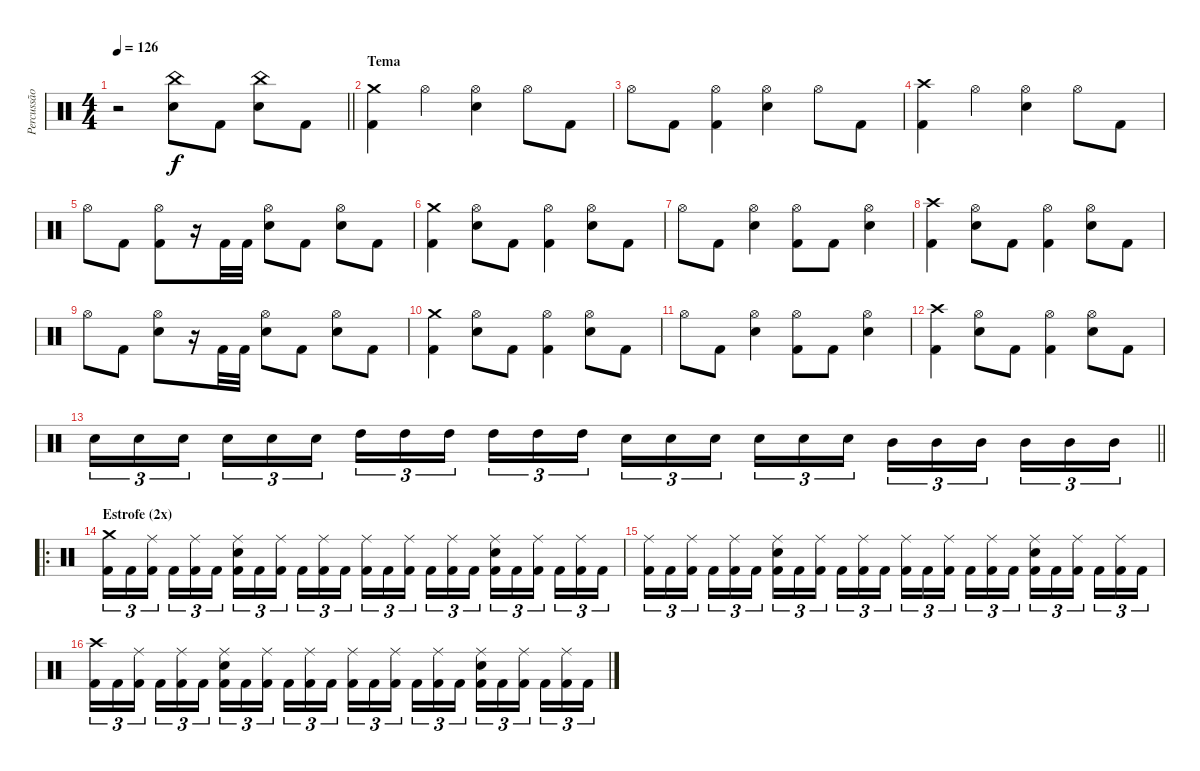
\track ("Percussão" "Percussão") {instrument percussion}
\staff {score}
\articulation defaults
\ts (4 4)
\tempo 126
\clef neutral
\barLineRight lightlight
\ks c
r.2{dy f} ("China (hit)" "Electric Snare (hit)").8 "Kick (hit) 2".8 ("China (hit)" "Electric Snare (hit)").8 "Kick (hit) 2".8 |
\section ("" "Tema")
("Crash medium (hit)" "Kick (hit) 2").4 "Hi-Hat (open)".4 ("Hi-Hat (open)" "Electric Snare (hit)").4 "Hi-Hat (open)".8 "Kick (hit) 2".8 |
"Hi-Hat (open)".8 "Kick (hit) 2".8 ("Hi-Hat (open)" "Kick (hit) 2").4 ("Hi-Hat (open)" "Electric Snare (hit)").4 "Hi-Hat (open)".8 "Kick (hit) 2".8 |
("Crash high (hit)" "Kick (hit) 2").4 "Hi-Hat (open)".4 ("Hi-Hat (open)" "Electric Snare (hit)").4 "Hi-Hat (open)".8 "Kick (hit) 2".8 |
"Hi-Hat (open)".8 "Kick (hit) 2".8 ("Hi-Hat (open)" "Kick (hit) 2").8 r.16 "Kick (hit) 2".32 "Kick (hit) 2".32 ("Hi-Hat (open)" "Electric Snare (hit)").8 "Kick (hit) 2".8 ("Hi-Hat (open)" "Electric Snare (hit)").8 "Kick (hit) 2".8 |
("Crash medium (hit)" "Kick (hit) 2").4 ("Hi-Hat (open)" "Electric Snare (hit)").8 "Kick (hit) 2".8 ("Hi-Hat (open)" "Kick (hit) 2").4 ("Hi-Hat (open)" "Electric Snare (hit)").8 "Kick (hit) 2".8 |
"Hi-Hat (open)".8 "Kick (hit) 2".8 ("Hi-Hat (open)" "Electric Snare (hit)").4 ("Hi-Hat (open)" "Kick (hit) 2").8 "Kick (hit) 2".8 ("Hi-Hat (open)" "Electric Snare (hit)").4 |
("Crash high (hit)" "Kick (hit) 2").4 ("Hi-Hat (open)" "Electric Snare (hit)").8 "Kick (hit) 2".8 ("Hi-Hat (open)" "Kick (hit) 2").4 ("Hi-Hat (open)" "Electric Snare (hit)").8 "Kick (hit) 2".8 |
"Hi-Hat (open)".8 "Kick (hit) 2".8 ("Hi-Hat (open)" "Electric Snare (hit)").8 r.16 "Kick (hit) 2".32 "Kick (hit) 2".32 ("Hi-Hat (open)" "Electric Snare (hit)").8 "Kick (hit) 2".8 ("Hi-Hat (open)" "Electric Snare (hit)").8 "Kick (hit) 2".8 |
("Crash medium (hit)" "Kick (hit) 2").4 ("Hi-Hat (open)" "Electric Snare (hit)").8 "Kick (hit) 2".8 ("Hi-Hat (open)" "Kick (hit) 2").4 ("Hi-Hat (open)" "Electric Snare (hit)").8 "Kick (hit) 2".8 |
"Hi-Hat (open)".8 "Kick (hit) 2".8 ("Hi-Hat (open)" "Electric Snare (hit)").4 ("Hi-Hat (open)" "Kick (hit) 2").8 "Kick (hit) 2".8 ("Hi-Hat (open)" "Electric Snare (hit)").4 |
("Crash high (hit)" "Kick (hit) 2").4 ("Hi-Hat (open)" "Electric Snare (hit)").8 "Kick (hit) 2".8 ("Hi-Hat (open)" "Kick (hit) 2").4 ("Hi-Hat (open)" "Electric Snare (hit)").8 "Kick (hit) 2".8 |
\barLineRight lightlight "Electric Snare (hit)".16{tu (3 2)} "Electric Snare (hit)".16{tu (3 2)} "Electric Snare (hit)".16{tu (3 2) beam splitsecondary} "Electric Snare (hit)".16{tu (3 2)} "Electric Snare (hit)".16{tu (3 2)} "Electric Snare (hit)".16{tu (3 2)} "High Tom (hit)".16{tu (3 2)} "High Tom (hit)".16{tu (3 2)} "High Tom (hit)".16{tu (3 2) beam splitsecondary} "High Tom (hit)".16{tu (3 2)} "High Tom (hit)".16{tu (3 2)} "High Tom (hit)".16{tu (3 2)} "Electric Snare (hit)".16{tu (3 2)} "Electric Snare (hit)".16{tu (3 2)} "Electric Snare (hit)".16{tu (3 2) beam splitsecondary} "Electric Snare (hit)".16{tu (3 2)} "Electric Snare (hit)".16{tu (3 2)} "Electric Snare (hit)".16{tu (3 2)} "Mid Tom (hit)".16{tu (3 2)} "Mid Tom (hit)".16{tu (3 2)} "Mid Tom (hit)".16{tu (3 2) beam splitsecondary} "Mid Tom (hit)".16{tu (3 2)} "Mid Tom (hit)".16{tu (3 2)} "Mid Tom (hit)".16{tu (3 2)}
|
\ro
\section ("" "Estrofe (2x)")
("Crash medium (hit)" "Kick (hit) 2").16{tu (3 2)} "Kick (hit) 2".16{tu (3 2)} ("Ride (middle)" "Kick (hit) 2").16{tu (3 2) beam splitsecondary} "Kick (hit) 2".16{tu (3 2)} ("Ride (middle)" "Kick (hit) 2").16{tu (3 2)} "Kick (hit) 2".16{tu (3 2)} ("Ride (middle)" "Electric Snare (hit)" "Kick (hit) 2").16{tu (3 2)} "Kick (hit) 2".16{tu (3 2)} ("Ride (middle)" "Kick (hit) 2").16{tu (3 2) beam splitsecondary} "Kick (hit) 2".16{tu (3 2)} ("Ride (middle)" "Kick (hit) 2").16{tu (3 2)} "Kick (hit) 2".16{tu (3 2)} ("Ride (middle)" "Kick (hit) 2").16{tu (3 2)} "Kick (hit) 2".16{tu (3 2)} ("Ride (middle)" "Kick (hit) 2").16{tu (3 2) beam splitsecondary} "Kick (hit) 2".16{tu (3 2)} ("Ride (middle)" "Kick (hit) 2").16{tu (3 2)} "Kick (hit) 2".16{tu (3 2)} ("Ride (middle)" "Electric Snare (hit)" "Kick (hit) 2").16{tu (3 2)} "Kick (hit) 2".16{tu (3 2)} ("Ride (middle)" "Kick (hit) 2").16{tu (3 2) beam splitsecondary} "Kick (hit) 2".16{tu (3 2)} ("Ride (middle)" "Kick (hit) 2").16{tu (3 2)} "Kick (hit) 2".16{tu (3 2)} |
("Ride (middle)" "Kick (hit) 2").16{tu (3 2)} "Kick (hit) 2".16{tu (3 2)} ("Ride (middle)" "Kick (hit) 2").16{tu (3 2) beam splitsecondary} "Kick (hit) 2".16{tu (3 2)} ("Ride (middle)" "Kick (hit) 2").16{tu (3 2)} "Kick (hit) 2".16{tu (3 2)} ("Ride (middle)" "Electric Snare (hit)" "Kick (hit) 2").16{tu (3 2)} "Kick (hit) 2".16{tu (3 2)} ("Ride (middle)" "Kick (hit) 2").16{tu (3 2) beam splitsecondary} "Kick (hit) 2".16{tu (3 2)} ("Ride (middle)" "Kick (hit) 2").16{tu (3 2)} "Kick (hit) 2".16{tu (3 2)} ("Ride (middle)" "Kick (hit) 2").16{tu (3 2)} "Kick (hit) 2".16{tu (3 2)} ("Ride (middle)" "Kick (hit) 2").16{tu (3 2) beam splitsecondary} "Kick (hit) 2".16{tu (3 2)} ("Ride (middle)" "Kick (hit) 2").16{tu (3 2)} "Kick (hit) 2".16{tu (3 2)} ("Ride (middle)" "Electric Snare (hit)" "Kick (hit) 2").16{tu (3 2)} "Kick (hit) 2".16{tu (3 2)} ("Ride (middle)" "Kick (hit) 2").16{tu (3 2) beam splitsecondary} "Kick (hit) 2".16{tu (3 2)} ("Ride (middle)" "Kick (hit) 2").16{tu (3 2)} "Kick (hit) 2".16{tu (3 2)} |
("Crash high (hit)" "Kick (hit) 2").16{tu (3 2)} "Kick (hit) 2".16{tu (3 2)} ("Ride (middle)" "Kick (hit) 2").16{tu (3 2) beam splitsecondary} "Kick (hit) 2".16{tu (3 2)} ("Ride (middle)" "Kick (hit) 2").16{tu (3 2)} "Kick (hit) 2".16{tu (3 2)} ("Ride (middle)" "Electric Snare (hit)" "Kick (hit) 2").16{tu (3 2)} "Kick (hit) 2".16{tu (3 2)} ("Ride (middle)" "Kick (hit) 2").16{tu (3 2) beam splitsecondary} "Kick (hit) 2".16{tu (3 2)} ("Ride (middle)" "Kick (hit) 2").16{tu (3 2)} "Kick (hit) 2".16{tu (3 2)} ("Ride (middle)" "Kick (hit) 2").16{tu (3 2)} "Kick (hit) 2".16{tu (3 2)} ("Ride (middle)" "Kick (hit) 2").16{tu (3 2) beam splitsecondary} "Kick (hit) 2".16{tu (3 2)} ("Ride (middle)" "Kick (hit) 2").16{tu (3 2)} "Kick (hit) 2".16{tu (3 2)} ("Ride (middle)" "Electric Snare (hit)" "Kick (hit) 2").16{tu (3 2)} "Kick (hit) 2".16{tu (3 2)} ("Ride (middle)" "Kick (hit) 2").16{tu (3 2) beam splitsecondary} "Kick (hit) 2".16{tu (3 2)} ("Ride (middle)" "Kick (hit) 2").16{tu (3 2)} "Kick (hit) 2".16{tu (3 2)}
